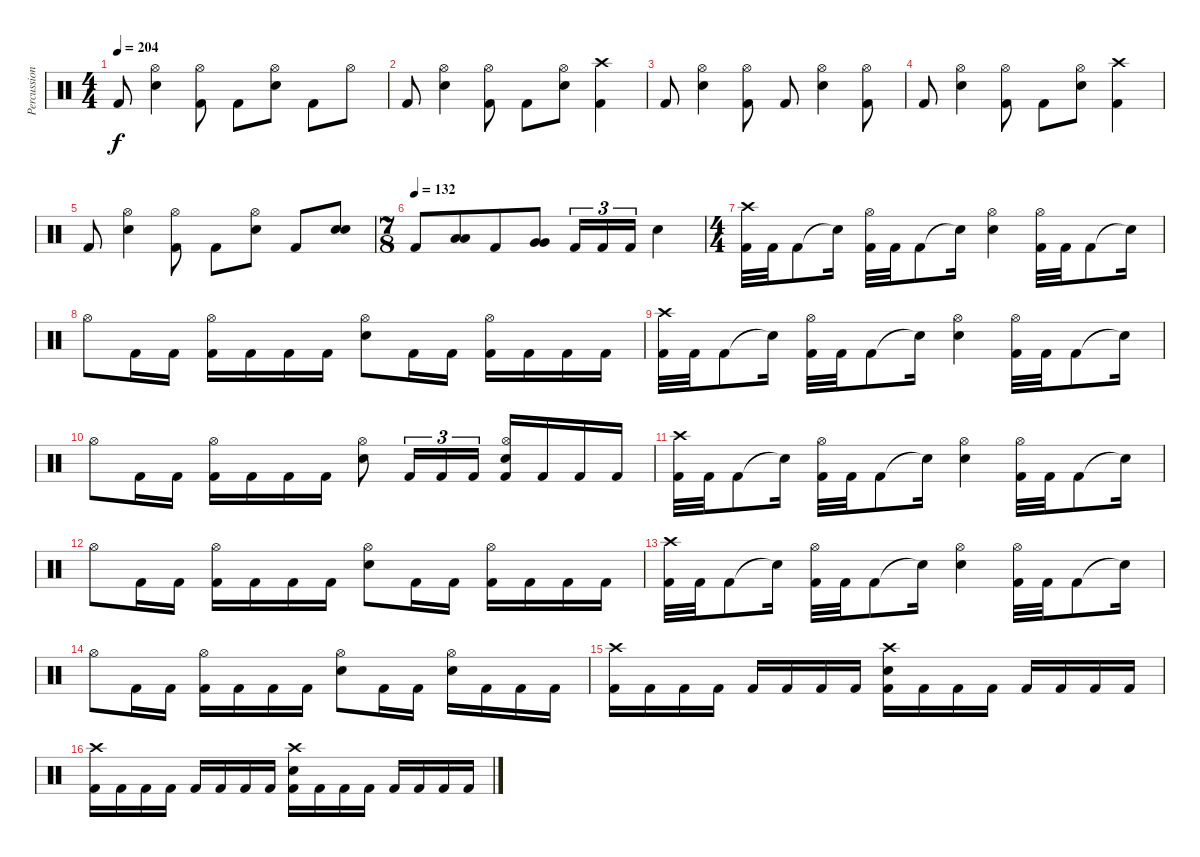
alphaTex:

\track ("Percussion" "Percussion") {instrument percussion}
\staff {score}
\articulation defaults
\ts (4 4)
\tempo 204
\clef neutral
\ks c "Kick (hit) 2".8{dy f}
("Hi-Hat (open)" "Electric Snare (hit)").4 ("Hi-Hat (open)" "Kick (hit) 2").8 "Kick (hit) 2".8 ("Hi-Hat (open)" "Electric Snare (hit)").8 "Kick (hit) 2".8 "Hi-Hat (open)".8 |
"Kick (hit) 2".8 ("Hi-Hat (open)" "Electric Snare (hit)").4 ("Hi-Hat (open)" "Kick (hit) 2").8 "Kick (hit) 2".8 ("Hi-Hat (open)" "Electric Snare (hit)").8 ("Crash high (hit)" "Kick (hit) 2").4 |
"Kick (hit) 2".8 ("Hi-Hat (open)" "Electric Snare (hit)").4 ("Hi-Hat (open)" "Kick (hit) 2").8 "Kick (hit) 2".8 ("Hi-Hat (open)" "Electric Snare (hit)").4 ("Hi-Hat (open)" "Kick (hit) 2").8 |
"Kick (hit) 2".8 ("Hi-Hat (open)" "Electric Snare (hit)").4 ("Hi-Hat (open)" "Kick (hit) 2").8 "Kick (hit) 2".8 ("Hi-Hat (open)" "Electric Snare (hit)").8 ("Crash high (hit)" "Kick (hit) 2").4 |
"Kick (hit) 2".8 ("Hi-Hat (open)" "Electric Snare (hit)").4 ("Hi-Hat (open)" "Kick (hit) 2").8 "Kick (hit) 2".8 ("Hi-Hat (open)" "Electric Snare (hit)").8 "Kick (hit) 2".8 ("Electric Snare (hit)" "Electric Snare (hit)").8 |
\ts (7 8)
\tempo 126
\tempo (132)
"Kick (hit) 2".8 ("Low Tom (hit)" "Low Tom (hit)").8 "Kick (hit) 2".8 ("Very Low Tom (hit)" "Very Low Tom (hit)").8 "Kick (hit) 2".16{tu (3 2)} "Kick (hit) 2".16{tu (3 2)} "Kick (hit) 2".16{tu (3 2)} "Electric Snare (hit)".4 |
\ts (4 4)
("Crash high (hit)" "Kick (hit) 2").32 "Kick (hit) 2".32 "Kick (hit) 2".8 "Snare (hit)"{t}.16 ("Hi-Hat (open)" "Kick (hit) 2").32 "Kick (hit) 2".32 "Kick (hit) 2".8 "Snare (hit)"{t}.16 ("Hi-Hat (open)" "Electric Snare (hit)").4 ("Hi-Hat (open)" "Kick (hit) 2").32 "Kick (hit) 2".32 "Kick (hit) 2".8 "Snare (hit)"{t}.16 |
"Hi-Hat (open)".8 "Kick (hit) 2".16 "Kick (hit) 2".16 ("Hi-Hat (open)" "Kick (hit) 2").16 "Kick (hit) 2".16 "Kick (hit) 2".16 "Kick (hit) 2".16 ("Hi-Hat (open)" "Electric Snare (hit)").8 "Kick (hit) 2".16 "Kick (hit) 2".16 ("Hi-Hat (open)" "Kick (hit) 2").16 "Kick (hit) 2".16 "Kick (hit) 2".16 "Kick (hit) 2".16 |
("Crash high (hit)" "Kick (hit) 2").32 "Kick (hit) 2".32 "Kick (hit) 2".8 "Snare (hit)"{t}.16 ("Hi-Hat (open)" "Kick (hit) 2").32 "Kick (hit) 2".32 "Kick (hit) 2".8 "Snare (hit)"{t}.16 ("Hi-Hat (open)" "Electric Snare (hit)").4 ("Hi-Hat (open)" "Kick (hit) 2").32 "Kick (hit) 2".32 "Kick (hit) 2".8 "Snare (hit)"{t}.16 |
"Hi-Hat (open)".8 "Kick (hit) 2".16 "Kick (hit) 2".16 ("Hi-Hat (open)" "Kick (hit) 2").16 "Kick (hit) 2".16 "Kick (hit) 2".16 "Kick (hit) 2".16 ("Hi-Hat (open)" "Electric Snare (hit)").8 "Kick (hit) 2".16{tu (3 2)} "Kick (hit) 2".16{tu (3 2)} "Kick (hit) 2".16{tu (3 2)} ("Hi-Hat (open)" "Electric Snare (hit)" "Kick (hit) 2").16 "Kick (hit) 2".16 "Kick (hit) 2".16 "Kick (hit) 2".16 |
("Crash high (hit)" "Kick (hit) 2").32 "Kick (hit) 2".32 "Kick (hit) 2".8 "Snare (hit)"{t}.16 ("Hi-Hat (open)" "Kick (hit) 2").32 "Kick (hit) 2".32 "Kick (hit) 2".8 "Snare (hit)"{t}.16 ("Hi-Hat (open)" "Electric Snare (hit)").4 ("Hi-Hat (open)" "Kick (hit) 2").32 "Kick (hit) 2".32 "Kick (hit) 2".8 "Snare (hit)"{t}.16 |
"Hi-Hat (open)".8 "Kick (hit) 2".16 "Kick (hit) 2".16 ("Hi-Hat (open)" "Kick (hit) 2").16 "Kick (hit) 2".16 "Kick (hit) 2".16 "Kick (hit) 2".16 ("Hi-Hat (open)" "Electric Snare (hit)").8 "Kick (hit) 2".16 "Kick (hit) 2".16 ("Hi-Hat (open)" "Kick (hit) 2").16 "Kick (hit) 2".16 "Kick (hit) 2".16 "Kick (hit) 2".16 |
("Crash high (hit)" "Kick (hit) 2").32 "Kick (hit) 2".32 "Kick (hit) 2".8 "Snare (hit)"{t}.16 ("Hi-Hat (open)" "Kick (hit) 2").32 "Kick (hit) 2".32 "Kick (hit) 2".8 "Snare (hit)"{t}.16 ("Hi-Hat (open)" "Electric Snare (hit)").4 ("Hi-Hat (open)" "Kick (hit) 2").32 "Kick (hit) 2".32 "Kick (hit) 2".8 "Snare (hit)"{t}.16 |
"Hi-Hat (open)".8 "Kick (hit) 2".16 "Kick (hit) 2".16 ("Hi-Hat (open)" "Kick (hit) 2").16 "Kick (hit) 2".16 "Kick (hit) 2".16 "Kick (hit) 2".16 ("Hi-Hat (open)" "Electric Snare (hit)").8 "Kick (hit) 2".16 "Kick (hit) 2".16 ("Hi-Hat (open)" "Electric Snare (hit)").16 "Kick (hit) 2".16 "Kick (hit) 2".16 "Kick (hit) 2".16 |
("Crash high (hit)" "Kick (hit) 2").16 "Kick (hit) 2".16 "Kick (hit) 2".16 "Kick (hit) 2".16 "Kick (hit) 2".16 "Kick (hit) 2".16 "Kick (hit) 2".16 "Kick (hit) 2".16 ("Crash high (hit)" "Electric Snare (hit)" "Kick (hit) 2").16 "Kick (hit) 2".16 "Kick (hit) 2".16 "Kick (hit) 2".16 "Kick (hit) 2".16 "Kick (hit) 2".16 "Kick (hit) 2".16 "Kick (hit) 2".16 |
("Crash high (hit)" "Kick (hit) 2").16 "Kick (hit) 2".16 "Kick (hit) 2".16 "Kick (hit) 2".16 "Kick (hit) 2".16 "Kick (hit) 2".16 "Kick (hit) 2".16 "Kick (hit) 2".16 ("Crash high (hit)" "Electric Snare (hit)" "Kick (hit) 2").16 "Kick (hit) 2".16 "Kick (hit) 2".16 "Kick (hit) 2".16 "Kick (hit) 2".16 "Kick (hit) 2".16 "Kick (hit) 2".16 "Kick (hit) 2".16
